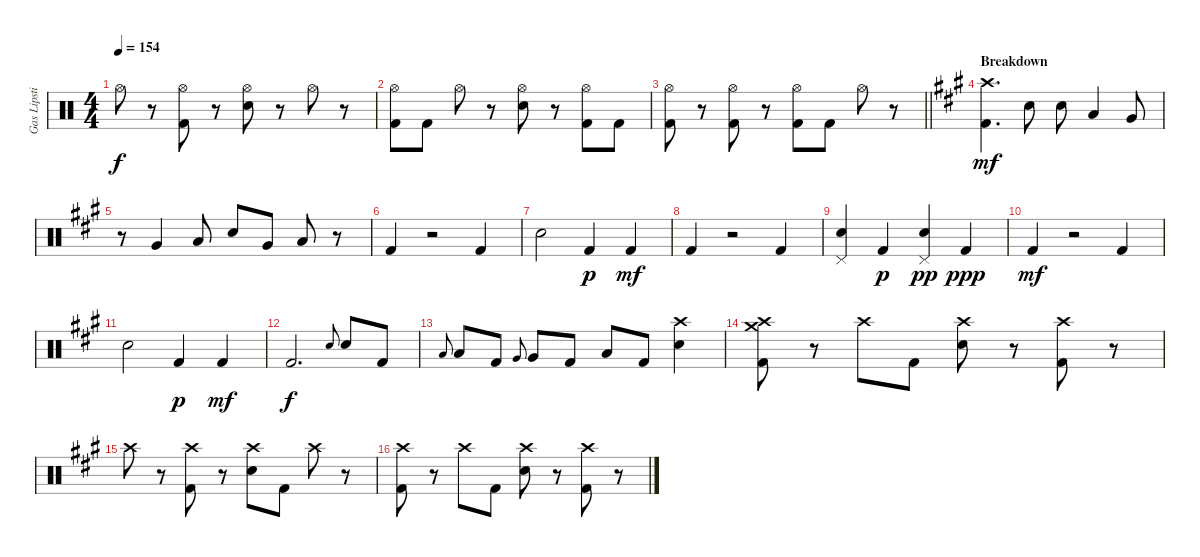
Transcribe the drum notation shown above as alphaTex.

\track ("Gas Lipstick (Drums)" "Gas Lipsti") {instrument percussion}
\staff {score}
\articulation defaults
\ts (4 4)
\tempo 154
\clef neutral
\ks c "Hi-Hat (open)".8{dy f}
r.8 ("Hi-Hat (open)" "Kick (hit) 2").8 r.8 ("Hi-Hat (open)" "Snare (hit) 2").8 r.8 "Hi-Hat (open)".8 r.8 |
("Hi-Hat (open)" "Kick (hit) 2").8 "Kick (hit) 2".8 "Hi-Hat (open)".8 r.8 ("Hi-Hat (open)" "Snare (hit) 2").8 r.8 ("Hi-Hat (open)" "Kick (hit) 2").8 "Kick (hit) 2".8 |
\barLineRight lightlight
("Hi-Hat (open)" "Kick (hit) 2").8 r.8 ("Hi-Hat (open)" "Kick (hit) 2").8 r.8 ("Hi-Hat (open)" "Kick (hit) 2").8 "Kick (hit) 2".8 "Hi-Hat (open)".8 r.8 |
\section ("" "Breakdown")
\ks a
("Crash high (hit)" "Kick (hit) 2").4{d dy mf} "Snare (hit) 2".8 "Snare (hit) 2".8 "Low Tom (hit)".4 "Very Low Tom (hit)".8 |
r.8 "Very Low Tom (hit)".4 "Low Floor Tom (hit)".8 "Snare (hit) 2".8 "Very Low Tom (hit)".8 "Low Floor Tom (hit)".8 r.8 |
"Kick (hit) 2".4 r.2 "Kick (hit) 2".4 |
"Snare (hit) 2".2 "Kick (hit) 2".4{dy p} "Kick (hit) 2".4{dy mf} |
"Kick (hit) 2".4 r.2 "Kick (hit) 2".4 |
("Pedal Hi-Hat (hit)" "Snare (hit) 2").4 "Kick (hit) 2".4{dy p} ("Pedal Hi-Hat (hit)" "Snare (hit) 2").4{dy pp} "Kick (hit) 2".4{dy ppp} |
"Kick (hit) 2".4{dy mf} r.2 "Kick (hit) 2".4 |
"Snare (hit) 2".2 "Kick (hit) 2".4{dy p} "Kick (hit) 2".4{dy mf} |
"Kick (hit) 2".2{d dy f} "Snare (hit) 2".8{gr onbeat} "Snare (hit) 2".8 "Kick (hit) 2".8 |
"Low Tom (hit)".8{gr onbeat} "Low Tom (hit)".8 "Kick (hit) 2".8 "Very Low Tom (hit)".8{gr onbeat} "Very Low Tom (hit)".8 "Kick (hit) 2".8 "Low Floor Tom (hit)".8 "Kick (hit) 2".8 ("Crash high (hit)" "Snare (hit) 2").4 |
("Crash medium (hit)" "Crash high (hit)" "Kick (hit) 2").8 r.8 "Crash high (hit)".8 "Kick (hit) 2".8 ("Crash high (hit)" "Snare (hit) 2").8 r.8 ("Crash high (hit)" "Kick (hit) 2").8 r.8 |
"Crash high (hit)".8 r.8 ("Crash high (hit)" "Kick (hit) 2").8 r.8 ("Crash high (hit)" "Snare (hit) 2").8 "Kick (hit) 2".8 "Crash high (hit)".8 r.8 |
("Crash high (hit)" "Kick (hit) 2").8 r.8 "Crash high (hit)".8 "Kick (hit) 2".8 ("Crash high (hit)" "Snare (hit) 2").8 r.8 ("Crash high (hit)" "Kick (hit) 2").8 r.8
